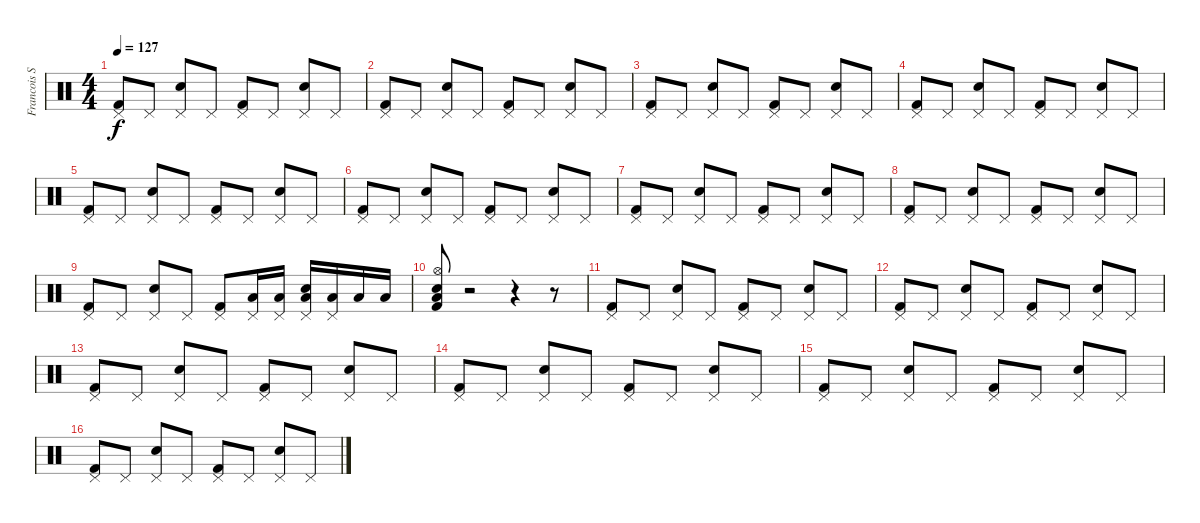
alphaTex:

\track ("Francois Soulier" "Francois S") {instrument percussion}
\staff {score}
\articulation defaults
\ts (4 4)
\tempo 127
\clef neutral
\ks c
("Kick (hit) 2" "Pedal Hi-Hat (hit)").8{dy f} "Pedal Hi-Hat (hit)".8 ("Snare (hit) 2" "Pedal Hi-Hat (hit)").8 "Pedal Hi-Hat (hit)".8 ("Kick (hit) 2" "Pedal Hi-Hat (hit)").8 "Pedal Hi-Hat (hit)".8 ("Snare (hit) 2" "Pedal Hi-Hat (hit)").8 "Pedal Hi-Hat (hit)".8 |
("Kick (hit) 2" "Pedal Hi-Hat (hit)").8 "Pedal Hi-Hat (hit)".8 ("Snare (hit) 2" "Pedal Hi-Hat (hit)").8 "Pedal Hi-Hat (hit)".8 ("Kick (hit) 2" "Pedal Hi-Hat (hit)").8 "Pedal Hi-Hat (hit)".8 ("Snare (hit) 2" "Pedal Hi-Hat (hit)").8 "Pedal Hi-Hat (hit)".8 |
("Kick (hit) 2" "Pedal Hi-Hat (hit)").8 "Pedal Hi-Hat (hit)".8 ("Snare (hit) 2" "Pedal Hi-Hat (hit)").8 "Pedal Hi-Hat (hit)".8 ("Kick (hit) 2" "Pedal Hi-Hat (hit)").8 "Pedal Hi-Hat (hit)".8 ("Snare (hit) 2" "Pedal Hi-Hat (hit)").8 "Pedal Hi-Hat (hit)".8 |
("Kick (hit) 2" "Pedal Hi-Hat (hit)").8 "Pedal Hi-Hat (hit)".8 ("Snare (hit) 2" "Pedal Hi-Hat (hit)").8 "Pedal Hi-Hat (hit)".8 ("Kick (hit) 2" "Pedal Hi-Hat (hit)").8 "Pedal Hi-Hat (hit)".8 ("Snare (hit) 2" "Pedal Hi-Hat (hit)").8 "Pedal Hi-Hat (hit)".8 |
("Kick (hit) 2" "Pedal Hi-Hat (hit)").8 "Pedal Hi-Hat (hit)".8 ("Snare (hit) 2" "Pedal Hi-Hat (hit)").8 "Pedal Hi-Hat (hit)".8 ("Kick (hit) 2" "Pedal Hi-Hat (hit)").8 "Pedal Hi-Hat (hit)".8 ("Snare (hit) 2" "Pedal Hi-Hat (hit)").8 "Pedal Hi-Hat (hit)".8 |
("Kick (hit) 2" "Pedal Hi-Hat (hit)").8 "Pedal Hi-Hat (hit)".8 ("Snare (hit) 2" "Pedal Hi-Hat (hit)").8 "Pedal Hi-Hat (hit)".8 ("Kick (hit) 2" "Pedal Hi-Hat (hit)").8 "Pedal Hi-Hat (hit)".8 ("Snare (hit) 2" "Pedal Hi-Hat (hit)").8 "Pedal Hi-Hat (hit)".8 |
("Kick (hit) 2" "Pedal Hi-Hat (hit)").8 "Pedal Hi-Hat (hit)".8 ("Snare (hit) 2" "Pedal Hi-Hat (hit)").8 "Pedal Hi-Hat (hit)".8 ("Kick (hit) 2" "Pedal Hi-Hat (hit)").8 "Pedal Hi-Hat (hit)".8 ("Snare (hit) 2" "Pedal Hi-Hat (hit)").8 "Pedal Hi-Hat (hit)".8 |
("Kick (hit) 2" "Pedal Hi-Hat (hit)").8 "Pedal Hi-Hat (hit)".8 ("Snare (hit) 2" "Pedal Hi-Hat (hit)").8 "Pedal Hi-Hat (hit)".8 ("Kick (hit) 2" "Pedal Hi-Hat (hit)").8 "Pedal Hi-Hat (hit)".8 ("Snare (hit) 2" "Pedal Hi-Hat (hit)").8 "Pedal Hi-Hat (hit)".8 |
("Kick (hit) 2" "Pedal Hi-Hat (hit)").8 "Pedal Hi-Hat (hit)".8 ("Snare (hit) 2" "Pedal Hi-Hat (hit)").8 "Pedal Hi-Hat (hit)".8 ("Kick (hit) 2" "Pedal Hi-Hat (hit)").8 ("Low Floor Tom (hit)" "Pedal Hi-Hat (hit)").16 ("Low Floor Tom (hit)" "Pedal Hi-Hat (hit)").16 ("Low Floor Tom (hit)" "Snare (hit) 2" "Pedal Hi-Hat (hit)").16 ("Low Floor Tom (hit)" "Pedal Hi-Hat (hit)").16 "Low Floor Tom (hit)".16 "Low Floor Tom (hit)".16 |
("Low Floor Tom (hit)" "Kick (hit) 2" "Hi-Hat (open)" "Electric Snare (hit)").8 r.2 r.4 r.8 |
("Kick (hit) 2" "Pedal Hi-Hat (hit)").8 "Pedal Hi-Hat (hit)".8 ("Snare (hit) 2" "Pedal Hi-Hat (hit)").8 "Pedal Hi-Hat (hit)".8 ("Kick (hit) 2" "Pedal Hi-Hat (hit)").8 "Pedal Hi-Hat (hit)".8 ("Snare (hit) 2" "Pedal Hi-Hat (hit)").8 "Pedal Hi-Hat (hit)".8 |
("Kick (hit) 2" "Pedal Hi-Hat (hit)").8 "Pedal Hi-Hat (hit)".8 ("Snare (hit) 2" "Pedal Hi-Hat (hit)").8 "Pedal Hi-Hat (hit)".8 ("Kick (hit) 2" "Pedal Hi-Hat (hit)").8 "Pedal Hi-Hat (hit)".8 ("Snare (hit) 2" "Pedal Hi-Hat (hit)").8 "Pedal Hi-Hat (hit)".8 |
("Kick (hit) 2" "Pedal Hi-Hat (hit)").8 "Pedal Hi-Hat (hit)".8 ("Snare (hit) 2" "Pedal Hi-Hat (hit)").8 "Pedal Hi-Hat (hit)".8 ("Kick (hit) 2" "Pedal Hi-Hat (hit)").8 "Pedal Hi-Hat (hit)".8 ("Snare (hit) 2" "Pedal Hi-Hat (hit)").8 "Pedal Hi-Hat (hit)".8 |
("Kick (hit) 2" "Pedal Hi-Hat (hit)").8 "Pedal Hi-Hat (hit)".8 ("Snare (hit) 2" "Pedal Hi-Hat (hit)").8 "Pedal Hi-Hat (hit)".8 ("Kick (hit) 2" "Pedal Hi-Hat (hit)").8 "Pedal Hi-Hat (hit)".8 ("Snare (hit) 2" "Pedal Hi-Hat (hit)").8 "Pedal Hi-Hat (hit)".8 |
("Kick (hit) 2" "Pedal Hi-Hat (hit)").8 "Pedal Hi-Hat (hit)".8 ("Snare (hit) 2" "Pedal Hi-Hat (hit)").8 "Pedal Hi-Hat (hit)".8 ("Kick (hit) 2" "Pedal Hi-Hat (hit)").8 "Pedal Hi-Hat (hit)".8 ("Snare (hit) 2" "Pedal Hi-Hat (hit)").8 "Pedal Hi-Hat (hit)".8 |
("Kick (hit) 2" "Pedal Hi-Hat (hit)").8 "Pedal Hi-Hat (hit)".8 ("Snare (hit) 2" "Pedal Hi-Hat (hit)").8 "Pedal Hi-Hat (hit)".8 ("Kick (hit) 2" "Pedal Hi-Hat (hit)").8 "Pedal Hi-Hat (hit)".8 ("Snare (hit) 2" "Pedal Hi-Hat (hit)").8 "Pedal Hi-Hat (hit)".8
